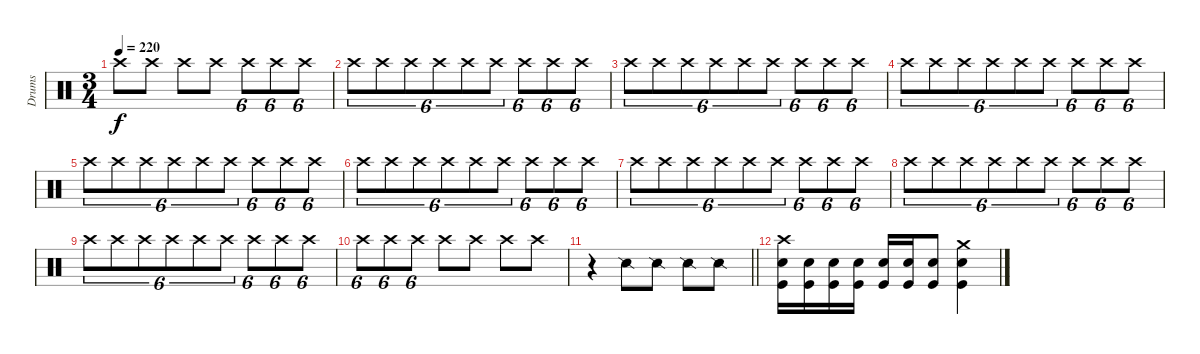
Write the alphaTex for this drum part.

\track ("Drums" "Drums") {instrument percussion}
\staff {score}
\articulation defaults
\ts (3 4)
\tempo 220
\clef neutral
\ks c "Crash high (hit)".8{dy f} "Crash high (hit)".8 "Crash high (hit)".8 "Crash high (hit)".8 "Crash high (hit)".8{tu (6 4)} "Crash high (hit)".8{tu (6 4)} "Crash high (hit)".8{tu (6 4)}
|
"Crash high (hit)".8{tu (6 4)} "Crash high (hit)".8{tu (6 4)} "Crash high (hit)".8{tu (6 4)} "Crash high (hit)".8{tu (6 4)} "Crash high (hit)".8{tu (6 4)} "Crash high (hit)".8{tu (6 4)} "Crash high (hit)".8{tu (6 4)} "Crash high (hit)".8{tu (6 4)} "Crash high (hit)".8{tu (6 4)} |
"Crash high (hit)".8{tu (6 4)} "Crash high (hit)".8{tu (6 4)} "Crash high (hit)".8{tu (6 4)} "Crash high (hit)".8{tu (6 4)} "Crash high (hit)".8{tu (6 4)} "Crash high (hit)".8{tu (6 4)} "Crash high (hit)".8{tu (6 4)} "Crash high (hit)".8{tu (6 4)} "Crash high (hit)".8{tu (6 4)} |
"Crash high (hit)".8{tu (6 4)} "Crash high (hit)".8{tu (6 4)} "Crash high (hit)".8{tu (6 4)} "Crash high (hit)".8{tu (6 4)} "Crash high (hit)".8{tu (6 4)} "Crash high (hit)".8{tu (6 4)} "Crash high (hit)".8{tu (6 4)} "Crash high (hit)".8{tu (6 4)} "Crash high (hit)".8{tu (6 4)} |
"Crash high (hit)".8{tu (6 4)} "Crash high (hit)".8{tu (6 4)} "Crash high (hit)".8{tu (6 4)} "Crash high (hit)".8{tu (6 4)} "Crash high (hit)".8{tu (6 4)} "Crash high (hit)".8{tu (6 4)} "Crash high (hit)".8{tu (6 4)} "Crash high (hit)".8{tu (6 4)} "Crash high (hit)".8{tu (6 4)} |
"Crash high (hit)".8{tu (6 4)} "Crash high (hit)".8{tu (6 4)} "Crash high (hit)".8{tu (6 4)} "Crash high (hit)".8{tu (6 4)} "Crash high (hit)".8{tu (6 4)} "Crash high (hit)".8{tu (6 4)} "Crash high (hit)".8{tu (6 4)} "Crash high (hit)".8{tu (6 4)} "Crash high (hit)".8{tu (6 4)} |
"Crash high (hit)".8{tu (6 4)} "Crash high (hit)".8{tu (6 4)} "Crash high (hit)".8{tu (6 4)} "Crash high (hit)".8{tu (6 4)} "Crash high (hit)".8{tu (6 4)} "Crash high (hit)".8{tu (6 4)} "Crash high (hit)".8{tu (6 4)} "Crash high (hit)".8{tu (6 4)} "Crash high (hit)".8{tu (6 4)} |
"Crash high (hit)".8{tu (6 4)} "Crash high (hit)".8{tu (6 4)} "Crash high (hit)".8{tu (6 4)} "Crash high (hit)".8{tu (6 4)} "Crash high (hit)".8{tu (6 4)} "Crash high (hit)".8{tu (6 4)} "Crash high (hit)".8{tu (6 4)} "Crash high (hit)".8{tu (6 4)} "Crash high (hit)".8{tu (6 4)} |
"Crash high (hit)".8{tu (6 4)} "Crash high (hit)".8{tu (6 4)} "Crash high (hit)".8{tu (6 4)} "Crash high (hit)".8{tu (6 4)} "Crash high (hit)".8{tu (6 4)} "Crash high (hit)".8{tu (6 4)} "Crash high (hit)".8{tu (6 4)} "Crash high (hit)".8{tu (6 4)} "Crash high (hit)".8{tu (6 4)} |
"Crash high (hit)".8{tu (6 4)} "Crash high (hit)".8{tu (6 4)} "Crash high (hit)".8{tu (6 4)} "Crash high (hit)".8 "Crash high (hit)".8 "Crash high (hit)".8 "Crash high (hit)".8 |
\barLineRight lightlight
r.4 "Snare (side stick) 2".8 "Snare (side stick) 2".8 "Snare (side stick) 2".8 "Snare (side stick) 2".8 |
\section ("" "")
("Crash high (hit)" "Electric Snare (hit)" "Kick (hit)").16 ("Electric Snare (hit)" "Kick (hit)").16 ("Electric Snare (hit)" "Kick (hit)").16 ("Electric Snare (hit)" "Kick (hit)").16 ("Electric Snare (hit)" "Kick (hit)").16 ("Electric Snare (hit)" "Kick (hit)").16 ("Electric Snare (hit)" "Kick (hit)").8 ("Crash medium (hit)" "Electric Snare (hit)" "Kick (hit)").4
